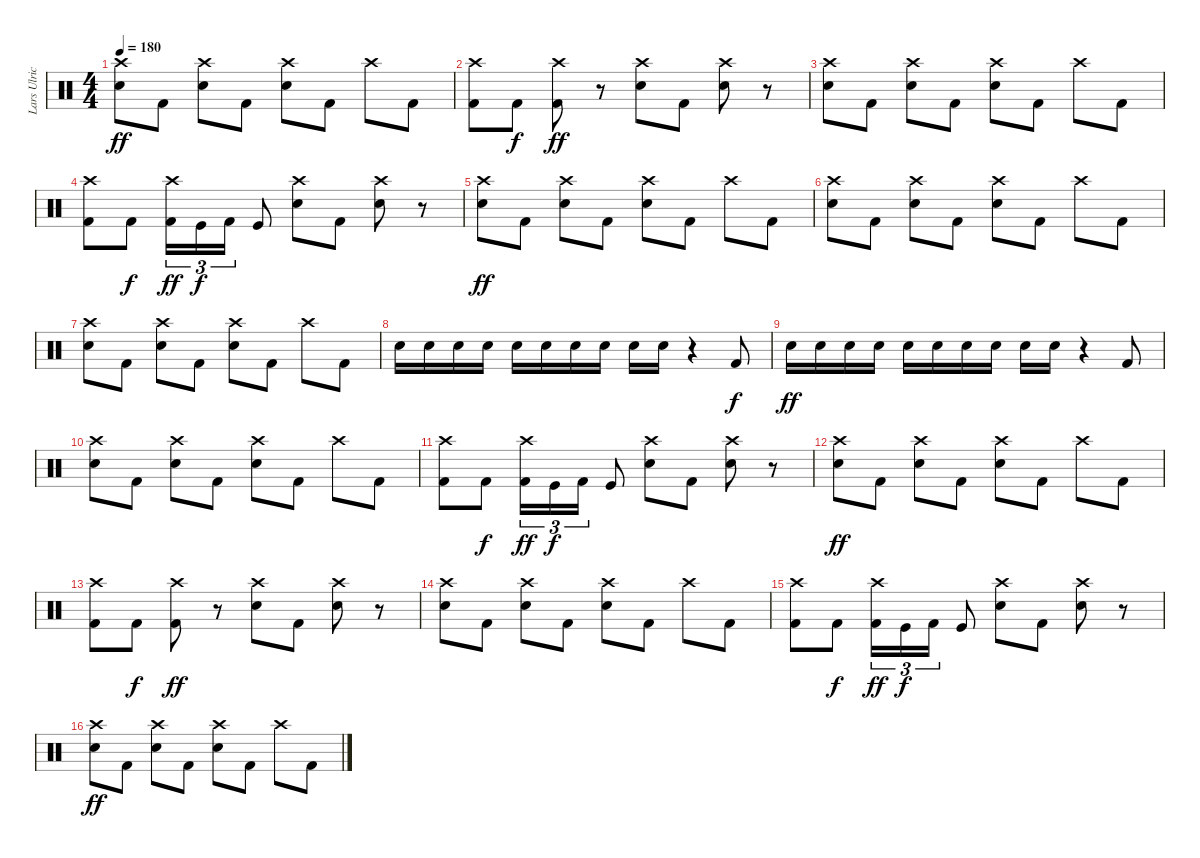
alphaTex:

\track ("Lars Ulrich" "Lars Ulric") {instrument percussion}
\staff {score}
\articulation defaults
\ts (4 4)
\tempo 180
\clef neutral
\ks c
("Crash high (hit)" "Electric Snare (hit)").8{dy ff} "Kick (hit) 2".8 ("Crash high (hit)" "Electric Snare (hit)").8 "Kick (hit) 2".8 ("Crash high (hit)" "Electric Snare (hit)").8 "Kick (hit) 2".8 "Crash high (hit)".8 "Kick (hit) 2".8 |
("Crash high (hit)" "Kick (hit) 2").8 "Kick (hit) 2".8{dy f} ("Crash high (hit)" "Kick (hit) 2").8{dy ff} r.8 ("Crash high (hit)" "Electric Snare (hit)").8 "Kick (hit) 2".8 ("Crash high (hit)" "Electric Snare (hit)").8 r.8 |
("Crash high (hit)" "Electric Snare (hit)").8 "Kick (hit) 2".8 ("Crash high (hit)" "Electric Snare (hit)").8 "Kick (hit) 2".8 ("Crash high (hit)" "Electric Snare (hit)").8 "Kick (hit) 2".8 "Crash high (hit)".8 "Kick (hit) 2".8 |
("Crash high (hit)" "Kick (hit) 2").8 "Kick (hit) 2".8{dy f} ("Crash high (hit)" "Kick (hit) 2").16{tu (3 2) dy ff} "Kick (hit)".16{tu (3 2) dy f} "Kick (hit) 2".16{tu (3 2)} "Kick (hit)".8 ("Crash high (hit)" "Electric Snare (hit)").8 "Kick (hit) 2".8 ("Crash high (hit)" "Electric Snare (hit)").8 r.8 |
("Crash high (hit)" "Electric Snare (hit)").8{dy ff} "Kick (hit) 2".8 ("Crash high (hit)" "Electric Snare (hit)").8 "Kick (hit) 2".8 ("Crash high (hit)" "Electric Snare (hit)").8 "Kick (hit) 2".8 "Crash high (hit)".8 "Kick (hit) 2".8 |
("Crash high (hit)" "Electric Snare (hit)").8 "Kick (hit) 2".8 ("Crash high (hit)" "Electric Snare (hit)").8 "Kick (hit) 2".8 ("Crash high (hit)" "Electric Snare (hit)").8 "Kick (hit) 2".8 "Crash high (hit)".8 "Kick (hit) 2".8 |
("Crash high (hit)" "Electric Snare (hit)").8 "Kick (hit) 2".8 ("Crash high (hit)" "Electric Snare (hit)").8 "Kick (hit) 2".8 ("Crash high (hit)" "Electric Snare (hit)").8 "Kick (hit) 2".8 "Crash high (hit)".8 "Kick (hit) 2".8 |
"Electric Snare (hit)".16 "Electric Snare (hit)".16 "Electric Snare (hit)".16 "Electric Snare (hit)".16 "Electric Snare (hit)".16 "Electric Snare (hit)".16 "Electric Snare (hit)".16 "Electric Snare (hit)".16 "Electric Snare (hit)".16 "Electric Snare (hit)".16 r.4 "Kick (hit) 2".8{dy f} |
"Electric Snare (hit)".16{dy ff} "Electric Snare (hit)".16 "Electric Snare (hit)".16 "Electric Snare (hit)".16 "Electric Snare (hit)".16 "Electric Snare (hit)".16 "Electric Snare (hit)".16 "Electric Snare (hit)".16 "Electric Snare (hit)".16 "Electric Snare (hit)".16 r.4 "Kick (hit) 2".8 |
("Crash high (hit)" "Electric Snare (hit)").8 "Kick (hit) 2".8 ("Crash high (hit)" "Electric Snare (hit)").8 "Kick (hit) 2".8 ("Crash high (hit)" "Electric Snare (hit)").8 "Kick (hit) 2".8 "Crash high (hit)".8 "Kick (hit) 2".8 |
("Crash high (hit)" "Kick (hit) 2").8 "Kick (hit) 2".8{dy f} ("Crash high (hit)" "Kick (hit) 2").16{tu (3 2) dy ff} "Kick (hit)".16{tu (3 2) dy f} "Kick (hit) 2".16{tu (3 2)} "Kick (hit)".8 ("Crash high (hit)" "Electric Snare (hit)").8 "Kick (hit) 2".8 ("Crash high (hit)" "Electric Snare (hit)").8 r.8 |
("Crash high (hit)" "Electric Snare (hit)").8{dy ff} "Kick (hit) 2".8 ("Crash high (hit)" "Electric Snare (hit)").8 "Kick (hit) 2".8 ("Crash high (hit)" "Electric Snare (hit)").8 "Kick (hit) 2".8 "Crash high (hit)".8 "Kick (hit) 2".8 |
("Crash high (hit)" "Kick (hit) 2").8 "Kick (hit) 2".8{dy f} ("Crash high (hit)" "Kick (hit) 2").8{dy ff} r.8 ("Crash high (hit)" "Electric Snare (hit)").8 "Kick (hit) 2".8 ("Crash high (hit)" "Electric Snare (hit)").8 r.8 |
("Crash high (hit)" "Electric Snare (hit)").8 "Kick (hit) 2".8 ("Crash high (hit)" "Electric Snare (hit)").8 "Kick (hit) 2".8 ("Crash high (hit)" "Electric Snare (hit)").8 "Kick (hit) 2".8 "Crash high (hit)".8 "Kick (hit) 2".8 |
("Crash high (hit)" "Kick (hit) 2").8 "Kick (hit) 2".8{dy f} ("Crash high (hit)" "Kick (hit) 2").16{tu (3 2) dy ff} "Kick (hit)".16{tu (3 2) dy f} "Kick (hit) 2".16{tu (3 2)} "Kick (hit)".8 ("Crash high (hit)" "Electric Snare (hit)").8 "Kick (hit) 2".8 ("Crash high (hit)" "Electric Snare (hit)").8 r.8 |
("Crash high (hit)" "Electric Snare (hit)").8{dy ff} "Kick (hit) 2".8 ("Crash high (hit)" "Electric Snare (hit)").8 "Kick (hit) 2".8 ("Crash high (hit)" "Electric Snare (hit)").8 "Kick (hit) 2".8 "Crash high (hit)".8 "Kick (hit) 2".8
